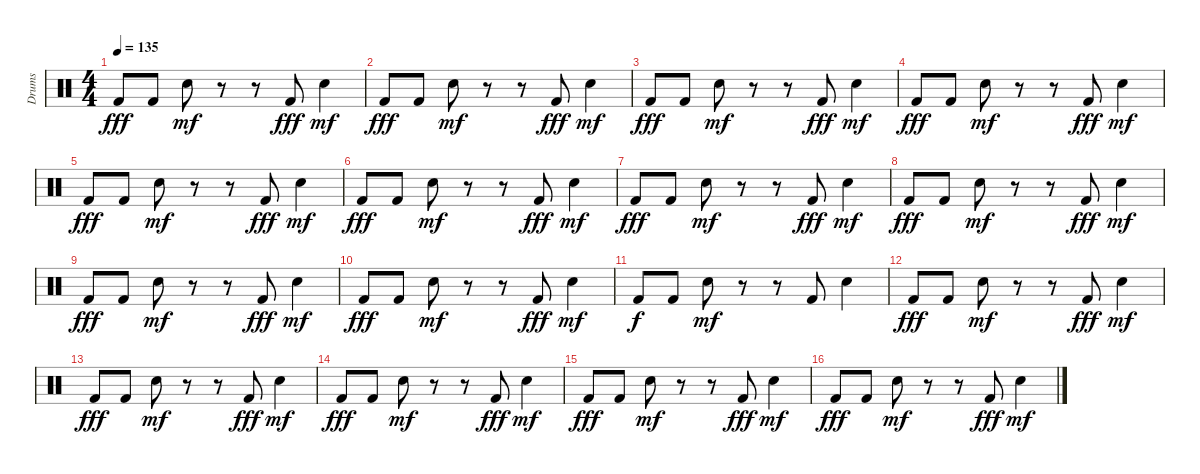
\track ("Drums" "Drums") {instrument percussion}
\staff {score}
\articulation defaults
\ts (4 4)
\tempo 135
\clef neutral
\ks c "Kick (hit) 2".8{dy fff} "Kick (hit) 2".8 "Snare (hit) 2".8{dy mf}
r.8 r.8 "Kick (hit) 2".8{dy fff} "Snare (hit) 2".4{dy mf} |
"Kick (hit) 2".8{dy fff} "Kick (hit) 2".8 "Snare (hit) 2".8{dy mf} r.8 r.8 "Kick (hit) 2".8{dy fff} "Snare (hit) 2".4{dy mf} |
"Kick (hit) 2".8{dy fff} "Kick (hit) 2".8 "Snare (hit) 2".8{dy mf} r.8 r.8 "Kick (hit) 2".8{dy fff} "Snare (hit) 2".4{dy mf} |
"Kick (hit) 2".8{dy fff} "Kick (hit) 2".8 "Snare (hit) 2".8{dy mf} r.8 r.8 "Kick (hit) 2".8{dy fff} "Snare (hit) 2".4{dy mf} |
"Kick (hit) 2".8{dy fff} "Kick (hit) 2".8 "Snare (hit) 2".8{dy mf} r.8 r.8 "Kick (hit) 2".8{dy fff} "Snare (hit) 2".4{dy mf} |
"Kick (hit) 2".8{dy fff} "Kick (hit) 2".8 "Snare (hit) 2".8{dy mf} r.8 r.8 "Kick (hit) 2".8{dy fff} "Snare (hit) 2".4{dy mf} |
"Kick (hit) 2".8{dy fff} "Kick (hit) 2".8 "Snare (hit) 2".8{dy mf} r.8 r.8 "Kick (hit) 2".8{dy fff} "Snare (hit) 2".4{dy mf} |
"Kick (hit) 2".8{dy fff} "Kick (hit) 2".8 "Snare (hit) 2".8{dy mf} r.8 r.8 "Kick (hit) 2".8{dy fff} "Snare (hit) 2".4{dy mf} |
"Kick (hit) 2".8{dy fff} "Kick (hit) 2".8 "Snare (hit) 2".8{dy mf} r.8 r.8 "Kick (hit) 2".8{dy fff} "Snare (hit) 2".4{dy mf} |
"Kick (hit) 2".8{dy fff} "Kick (hit) 2".8 "Snare (hit) 2".8{dy mf} r.8 r.8 "Kick (hit) 2".8{dy fff} "Snare (hit) 2".4{dy mf} |
"Kick (hit) 2".8{dy f} "Kick (hit) 2".8 "Snare (hit) 2".8{dy mf} r.8 r.8 "Kick (hit) 2".8 "Snare (hit) 2".4 |
"Kick (hit) 2".8{dy fff} "Kick (hit) 2".8 "Snare (hit) 2".8{dy mf} r.8 r.8 "Kick (hit) 2".8{dy fff} "Snare (hit) 2".4{dy mf} |
"Kick (hit) 2".8{dy fff} "Kick (hit) 2".8 "Snare (hit) 2".8{dy mf} r.8 r.8 "Kick (hit) 2".8{dy fff} "Snare (hit) 2".4{dy mf} |
"Kick (hit) 2".8{dy fff} "Kick (hit) 2".8 "Snare (hit) 2".8{dy mf} r.8 r.8 "Kick (hit) 2".8{dy fff} "Snare (hit) 2".4{dy mf} |
"Kick (hit) 2".8{dy fff} "Kick (hit) 2".8 "Snare (hit) 2".8{dy mf} r.8 r.8 "Kick (hit) 2".8{dy fff} "Snare (hit) 2".4{dy mf} |
"Kick (hit) 2".8{dy fff} "Kick (hit) 2".8 "Snare (hit) 2".8{dy mf} r.8 r.8 "Kick (hit) 2".8{dy fff} "Snare (hit) 2".4{dy mf}
